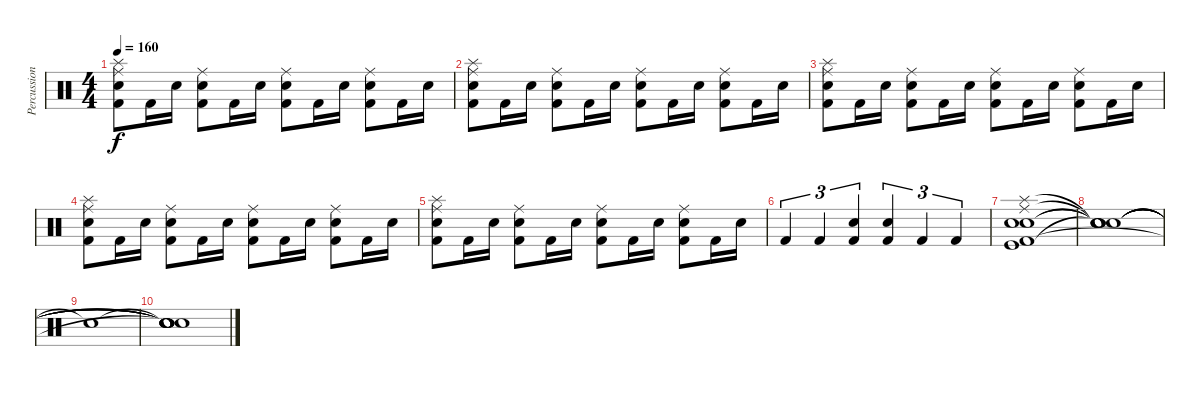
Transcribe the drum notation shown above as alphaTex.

\track ("Percussions" "Percussion") {instrument percussion}
\staff {score}
\articulation defaults
\ts (4 4)
\tempo 160
\clef neutral
\ks c
("Ride (middle)" "Splash (hit)" "Electric Snare (hit)" "Kick (hit) 2").8{dy f} "Kick (hit) 2".16 "Electric Snare (hit)".16 ("Kick (hit) 2" "Ride (middle)" "Electric Snare (hit)").8 "Kick (hit) 2".16 "Electric Snare (hit)".16 ("Kick (hit) 2" "Ride (middle)" "Electric Snare (hit)").8 "Kick (hit) 2".16 "Electric Snare (hit)".16 ("Electric Snare (hit)" "Ride (middle)" "Kick (hit) 2").8 "Kick (hit) 2".16 "Electric Snare (hit)".16 |
("Ride (middle)" "Splash (hit)" "Electric Snare (hit)" "Kick (hit) 2").8 "Kick (hit) 2".16 "Electric Snare (hit)".16 ("Kick (hit) 2" "Ride (middle)" "Electric Snare (hit)").8 "Kick (hit) 2".16 "Electric Snare (hit)".16 ("Kick (hit) 2" "Ride (middle)" "Electric Snare (hit)").8 "Kick (hit) 2".16 "Electric Snare (hit)".16 ("Electric Snare (hit)" "Ride (middle)" "Kick (hit) 2").8 "Kick (hit) 2".16 "Electric Snare (hit)".16 |
("Ride (middle)" "Splash (hit)" "Electric Snare (hit)" "Kick (hit) 2").8 "Kick (hit) 2".16 "Electric Snare (hit)".16 ("Kick (hit) 2" "Ride (middle)" "Electric Snare (hit)").8 "Kick (hit) 2".16 "Electric Snare (hit)".16 ("Kick (hit) 2" "Ride (middle)" "Electric Snare (hit)").8 "Kick (hit) 2".16 "Electric Snare (hit)".16 ("Electric Snare (hit)" "Ride (middle)" "Kick (hit) 2").8 "Kick (hit) 2".16 "Electric Snare (hit)".16 |
("Ride (middle)" "Splash (hit)" "Electric Snare (hit)" "Kick (hit) 2").8 "Kick (hit) 2".16 "Electric Snare (hit)".16 ("Kick (hit) 2" "Ride (middle)" "Electric Snare (hit)").8 "Kick (hit) 2".16 "Electric Snare (hit)".16 ("Kick (hit) 2" "Ride (middle)" "Electric Snare (hit)").8 "Kick (hit) 2".16 "Electric Snare (hit)".16 ("Electric Snare (hit)" "Ride (middle)" "Kick (hit) 2").8 "Kick (hit) 2".16 "Electric Snare (hit)".16 |
("Ride (middle)" "Splash (hit)" "Electric Snare (hit)" "Kick (hit) 2").8 "Kick (hit) 2".16 "Electric Snare (hit)".16 ("Kick (hit) 2" "Ride (middle)" "Electric Snare (hit)").8 "Kick (hit) 2".16 "Electric Snare (hit)".16 ("Kick (hit) 2" "Ride (middle)" "Electric Snare (hit)").8 "Kick (hit) 2".16 "Electric Snare (hit)".16 ("Electric Snare (hit)" "Ride (middle)" "Kick (hit) 2").8 "Kick (hit) 2".16 "Electric Snare (hit)".16 |
"Kick (hit) 2".4{tu (3 2)} "Kick (hit) 2".4{tu (3 2)} ("Electric Snare (hit)" "Kick (hit) 2").4{tu (3 2)} ("Electric Snare (hit)" "Kick (hit) 2").4{tu (3 2)} "Kick (hit) 2".4{tu (3 2)} "Kick (hit) 2".4{tu (3 2)} |
("Splash (hit)" "Kick (hit)" "Electric Snare (hit)" "Snare (hit) 2" "Ride (middle)" "Kick (hit) 2").1 |
("Snare (hit)"{t} "Snare (hit)"{t} "Snare (hit)"{t} "Snare (hit)"{t} "Snare (hit)"{t}).1 |
"Snare (hit)"{t}.1 |
("Snare (hit)"{t} "Snare (hit)"{t} "Snare (hit)"{t} "Snare (hit)"{t} "Snare (hit)"{t} "Snare (hit)"{t}).1
